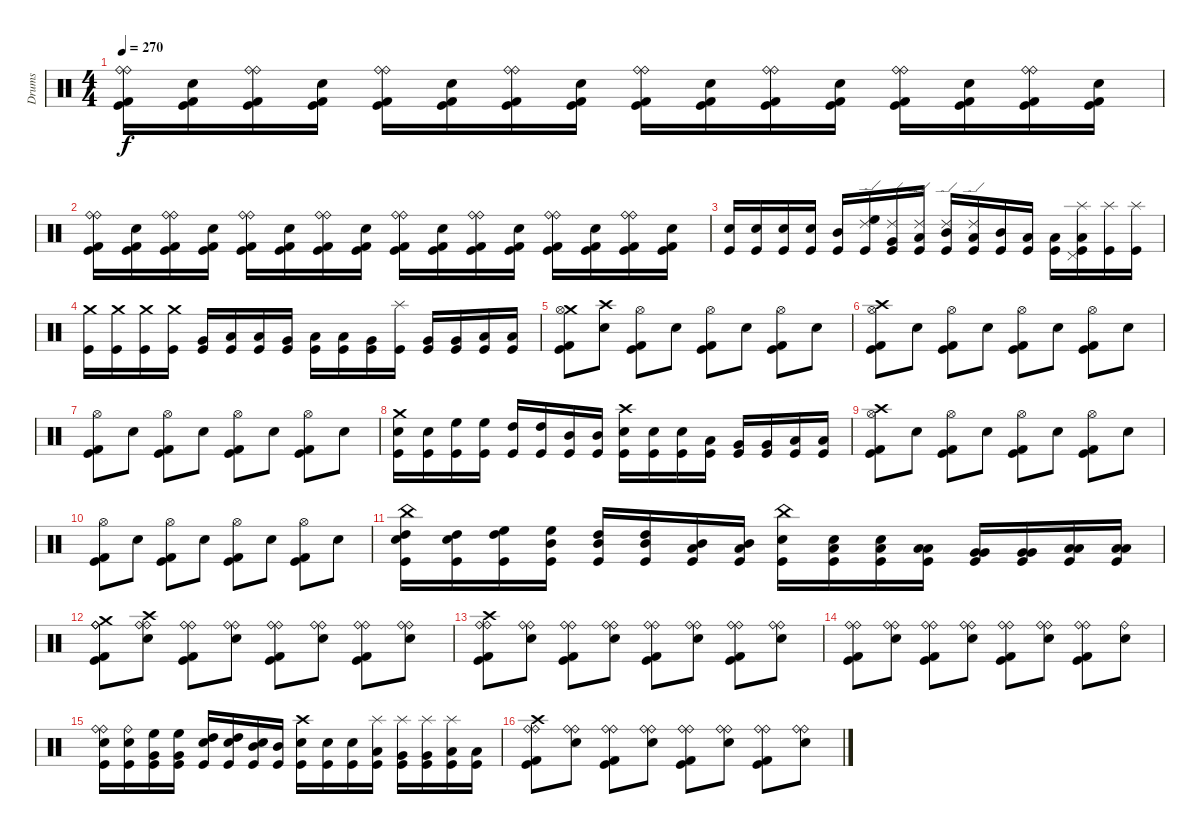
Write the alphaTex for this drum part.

\track ("Drums" "Drums") {instrument percussion}
\staff {score}
\articulation defaults
\ts (4 4)
\tempo 270
\clef neutral
\ks c
("Ride (bell)" "Ride (bell)" "Kick (hit)" "Kick (hit) 2").16{dy f} ("Electric Snare (hit)" "Kick (hit)" "Kick (hit) 2").16 ("Ride (bell)" "Ride (bell)" "Kick (hit)" "Kick (hit) 2").16 ("Electric Snare (hit)" "Kick (hit)" "Kick (hit) 2").16 ("Ride (bell)" "Ride (bell)" "Kick (hit)" "Kick (hit) 2").16 ("Electric Snare (hit)" "Kick (hit)" "Kick (hit) 2").16 ("Ride (bell)" "Ride (bell)" "Kick (hit)" "Kick (hit) 2").16 ("Electric Snare (hit)" "Kick (hit)" "Kick (hit) 2").16 ("Ride (bell)" "Ride (bell)" "Kick (hit)" "Kick (hit) 2").16 ("Electric Snare (hit)" "Kick (hit)" "Kick (hit) 2").16 ("Ride (bell)" "Ride (bell)" "Kick (hit)" "Kick (hit) 2").16 ("Electric Snare (hit)" "Kick (hit)" "Kick (hit) 2").16 ("Ride (bell)" "Ride (bell)" "Kick (hit)" "Kick (hit) 2").16 ("Electric Snare (hit)" "Kick (hit)" "Kick (hit) 2").16 ("Ride (bell)" "Ride (bell)" "Kick (hit)" "Kick (hit) 2").16 ("Electric Snare (hit)" "Kick (hit)" "Kick (hit) 2").16 |
("Ride (bell)" "Ride (bell)" "Kick (hit)" "Kick (hit) 2").16 ("Electric Snare (hit)" "Kick (hit)" "Kick (hit) 2").16 ("Ride (bell)" "Ride (bell)" "Kick (hit)" "Kick (hit) 2").16 ("Electric Snare (hit)" "Kick (hit)" "Kick (hit) 2").16 ("Ride (bell)" "Ride (bell)" "Kick (hit)" "Kick (hit) 2").16 ("Electric Snare (hit)" "Kick (hit)" "Kick (hit) 2").16 ("Ride (bell)" "Ride (bell)" "Kick (hit)" "Kick (hit) 2").16 ("Electric Snare (hit)" "Kick (hit)" "Kick (hit) 2").16 ("Ride (bell)" "Ride (bell)" "Kick (hit)" "Kick (hit) 2").16 ("Electric Snare (hit)" "Kick (hit)" "Kick (hit) 2").16 ("Ride (bell)" "Ride (bell)" "Kick (hit)" "Kick (hit) 2").16 ("Electric Snare (hit)" "Kick (hit)" "Kick (hit) 2").16 ("Ride (bell)" "Ride (bell)" "Kick (hit)" "Kick (hit) 2").16 ("Electric Snare (hit)" "Kick (hit)" "Kick (hit) 2").16 ("Ride (bell)" "Ride (bell)" "Kick (hit)" "Kick (hit) 2").16 ("Electric Snare (hit)" "Kick (hit)" "Kick (hit) 2").16 |
("Electric Snare (hit)" "Kick (hit)").16 ("Electric Snare (hit)" "Kick (hit)").16 ("Electric Snare (hit)" "Kick (hit)").16 ("Electric Snare (hit)" "Kick (hit)").16 ("Mid Tom (hit)" "Kick (hit)").16 ("Ride (edge) 2" "High Floor Tom (hit)" "Kick (hit)").16 ("Ride (edge) 2" "Very Low Tom (hit)" "Kick (hit)").16 ("Ride (edge) 2" "Low Tom (hit)" "Kick (hit)").16 ("Ride (edge) 2" "Mid Tom (hit)" "Kick (hit)").16 ("Ride (edge) 2" "Low Floor Tom (hit)" "Kick (hit)").16 ("Mid Tom (hit)" "Kick (hit)").16 ("Low Tom (hit)" "Kick (hit)").16 ("Low Floor Tom (hit)" "Kick (hit)").16 ("Pedal Hi-Hat (hit)" "Low Floor Tom (hit)" "Kick (hit)" "Splash (hit)").16 ("Kick (hit)" "Splash (hit)").16 ("Kick (hit)" "Splash (hit)").16 |
("Crash medium (hit)" "Kick (hit)").16 ("Crash medium (hit)" "Kick (hit)").16 ("Crash medium (hit)" "Kick (hit)").16 ("Crash medium (hit)" "Kick (hit)").16 ("Very Low Tom (hit)" "Kick (hit)").16 ("Low Tom (hit)" "Kick (hit)").16 ("Low Floor Tom (hit)" "Kick (hit)").16 ("Very Low Tom (hit)" "Kick (hit)").16 ("Low Floor Tom (hit)" "Kick (hit)").16 ("Low Floor Tom (hit)" "Kick (hit)").16 ("Very Low Tom (hit)" "Kick (hit)").16 ("Splash (hit)" "Kick (hit)").16 ("Very Low Tom (hit)" "Kick (hit)").16 ("Very Low Tom (hit)" "Kick (hit)").16 ("Low Floor Tom (hit)" "Kick (hit)").16 ("Low Floor Tom (hit)" "Kick (hit)").16 |
("Crash medium (hit)" "Hi-Hat (open)" "Kick (hit) 2" "Kick (hit)").8 ("Crash high (hit)" "Electric Snare (hit)").8 ("Hi-Hat (open)" "Kick (hit) 2" "Kick (hit)").8 "Electric Snare (hit)".8 ("Hi-Hat (open)" "Kick (hit) 2" "Kick (hit)").8 "Electric Snare (hit)".8 ("Hi-Hat (open)" "Kick (hit) 2" "Kick (hit)").8 "Electric Snare (hit)".8 |
("Crash high (hit)" "Hi-Hat (open)" "Kick (hit) 2" "Kick (hit)").8 "Electric Snare (hit)".8 ("Hi-Hat (open)" "Kick (hit) 2" "Kick (hit)").8 "Electric Snare (hit)".8 ("Hi-Hat (open)" "Kick (hit) 2" "Kick (hit)").8 "Electric Snare (hit)".8 ("Hi-Hat (open)" "Kick (hit) 2" "Kick (hit)").8 "Electric Snare (hit)".8 |
("Hi-Hat (open)" "Kick (hit) 2" "Kick (hit)").8 "Electric Snare (hit)".8 ("Hi-Hat (open)" "Kick (hit) 2" "Kick (hit)").8 "Electric Snare (hit)".8 ("Hi-Hat (open)" "Kick (hit) 2" "Kick (hit)").8 "Electric Snare (hit)".8 ("Hi-Hat (open)" "Kick (hit) 2" "Kick (hit)").8 "Electric Snare (hit)".8 |
("Crash medium (hit)" "Electric Snare (hit)" "Kick (hit)").16 ("Electric Snare (hit)" "Kick (hit)").16 ("High Floor Tom (hit)" "Kick (hit)").16 ("High Floor Tom (hit)" "Kick (hit)").16 ("High Tom (hit)" "Kick (hit)").16 ("High Tom (hit)" "Kick (hit)").16 ("Mid Tom (hit)" "Kick (hit)").16 ("Mid Tom (hit)" "Kick (hit)").16 ("Crash high (hit)" "Electric Snare (hit)" "Kick (hit)").16 ("Electric Snare (hit)" "Kick (hit)").16 ("Electric Snare (hit)" "Kick (hit)").16 ("Low Floor Tom (hit)" "Kick (hit)").16 ("Very Low Tom (hit)" "Kick (hit)").16 ("Very Low Tom (hit)" "Kick (hit)").16 ("Low Floor Tom (hit)" "Kick (hit)").16 ("Low Floor Tom (hit)" "Kick (hit)").16 |
("Crash high (hit)" "Hi-Hat (open)" "Kick (hit) 2" "Kick (hit)").8 "Electric Snare (hit)".8 ("Hi-Hat (open)" "Kick (hit) 2" "Kick (hit)").8 "Electric Snare (hit)".8 ("Hi-Hat (open)" "Kick (hit) 2" "Kick (hit)").8 "Electric Snare (hit)".8 ("Hi-Hat (open)" "Kick (hit) 2" "Kick (hit)").8 "Electric Snare (hit)".8 |
("Hi-Hat (open)" "Kick (hit) 2" "Kick (hit)").8 "Electric Snare (hit)".8 ("Hi-Hat (open)" "Kick (hit) 2" "Kick (hit)").8 "Electric Snare (hit)".8 ("Hi-Hat (open)" "Kick (hit) 2" "Kick (hit)").8 "Electric Snare (hit)".8 ("Hi-Hat (open)" "Kick (hit) 2" "Kick (hit)").8 "Electric Snare (hit)".8 |
("High Tom (hit)" "China (hit)" "Electric Snare (hit)" "Kick (hit)").16 ("High Tom (hit)" "Electric Snare (hit)" "Kick (hit)").16 ("High Tom (hit)" "High Floor Tom (hit)" "Kick (hit)").16 ("Mid Tom (hit)" "High Floor Tom (hit)" "Kick (hit)").16 ("Mid Tom (hit)" "High Tom (hit)" "Kick (hit)").16 ("Mid Tom (hit)" "High Tom (hit)" "Kick (hit)").16 ("Low Tom (hit)" "Mid Tom (hit)" "Kick (hit)").16 ("Low Tom (hit)" "Mid Tom (hit)" "Kick (hit)").16 ("China (hit)" "Electric Snare (hit)" "Kick (hit)").16 ("Low Tom (hit)" "Electric Snare (hit)" "Kick (hit)").16 ("Low Tom (hit)" "Electric Snare (hit)" "Kick (hit)").16 ("Low Tom (hit)" "Low Floor Tom (hit)" "Kick (hit)").16 ("Very Low Tom (hit)" "Very Low Tom (hit)" "Kick (hit)").16 ("Very Low Tom (hit)" "Very Low Tom (hit)" "Kick (hit)").16 ("Low Floor Tom (hit)" "Low Floor Tom (hit)" "Kick (hit)").16 ("Low Floor Tom (hit)" "Low Floor Tom (hit)" "Kick (hit)").16 |
("Ride (bell)" "Crash medium (hit)" "Ride (bell)" "Kick (hit) 2" "Kick (hit)").8 ("Ride (bell)" "Crash high (hit)" "Ride (bell)" "Electric Snare (hit)").8 ("Ride (bell)" "Ride (bell)" "Kick (hit) 2" "Kick (hit)").8 ("Ride (bell)" "Ride (bell)" "Electric Snare (hit)").8 ("Ride (bell)" "Ride (bell)" "Kick (hit) 2" "Kick (hit)").8 ("Ride (bell)" "Ride (bell)" "Electric Snare (hit)").8 ("Ride (bell)" "Ride (bell)" "Kick (hit) 2" "Kick (hit)").8 ("Ride (bell)" "Ride (bell)" "Electric Snare (hit)").8 |
("Ride (bell)" "Crash high (hit)" "Ride (bell)" "Kick (hit) 2" "Kick (hit)").8 ("Ride (bell)" "Ride (bell)" "Electric Snare (hit)").8 ("Ride (bell)" "Ride (bell)" "Kick (hit) 2" "Kick (hit)").8 ("Ride (bell)" "Ride (bell)" "Electric Snare (hit)").8 ("Ride (bell)" "Ride (bell)" "Kick (hit) 2" "Kick (hit)").8 ("Ride (bell)" "Ride (bell)" "Electric Snare (hit)").8 ("Ride (bell)" "Ride (bell)" "Kick (hit) 2" "Kick (hit)").8 ("Ride (bell)" "Ride (bell)" "Electric Snare (hit)").8 |
("Ride (bell)" "Ride (bell)" "Kick (hit) 2" "Kick (hit)").8 ("Ride (bell)" "Ride (bell)" "Electric Snare (hit)").8 ("Ride (bell)" "Ride (bell)" "Kick (hit) 2" "Kick (hit)").8 ("Ride (bell)" "Ride (bell)" "Electric Snare (hit)").8 ("Ride (bell)" "Ride (bell)" "Kick (hit) 2" "Kick (hit)").8 ("Ride (bell)" "Ride (bell)" "Electric Snare (hit)").8 ("Ride (bell)" "Ride (bell)" "Kick (hit) 2" "Kick (hit)").8 ("Ride (bell)" "Electric Snare (hit)").8 |
("Ride (bell)" "Ride (bell)" "Electric Snare (hit)" "Kick (hit)").16 ("Ride (bell)" "Electric Snare (hit)" "Kick (hit)").16 ("Very Low Tom (hit)" "High Floor Tom (hit)" "Kick (hit)").16 ("Very Low Tom (hit)" "High Floor Tom (hit)" "Kick (hit)").16 ("Electric Snare (hit)" "High Tom (hit)" "Kick (hit)").16 ("Electric Snare (hit)" "High Tom (hit)" "Kick (hit)").16 ("Electric Snare (hit)" "Mid Tom (hit)" "Kick (hit)").16 ("Mid Tom (hit)" "Kick (hit)").16 ("Crash high (hit)" "Electric Snare (hit)" "Kick (hit)").16 ("Electric Snare (hit)" "Kick (hit)").16 ("Electric Snare (hit)" "Kick (hit)").16 ("Splash (hit)" "Low Floor Tom (hit)" "Kick (hit)").16 ("Splash (hit)" "Very Low Tom (hit)" "Kick (hit)").16 ("Splash (hit)" "Very Low Tom (hit)" "Kick (hit)").16 ("Splash (hit)" "Low Floor Tom (hit)" "Kick (hit)").16 ("Low Floor Tom (hit)" "Kick (hit)").16 |
("Ride (bell)" "Crash high (hit)" "Ride (bell)" "Kick (hit) 2" "Kick (hit)").8 ("Ride (bell)" "Ride (bell)" "Electric Snare (hit)").8 ("Ride (bell)" "Ride (bell)" "Kick (hit) 2" "Kick (hit)").8 ("Ride (bell)" "Ride (bell)" "Electric Snare (hit)").8 ("Ride (bell)" "Ride (bell)" "Kick (hit) 2" "Kick (hit)").8 ("Ride (bell)" "Ride (bell)" "Electric Snare (hit)").8 ("Ride (bell)" "Ride (bell)" "Kick (hit) 2" "Kick (hit)").8 ("Ride (bell)" "Ride (bell)" "Electric Snare (hit)").8
